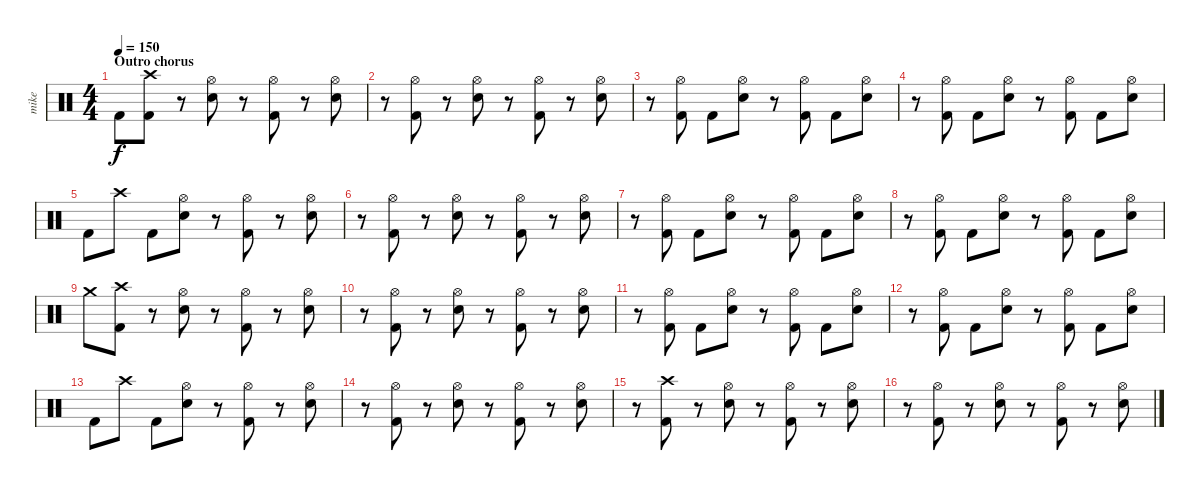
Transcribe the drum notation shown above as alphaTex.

\track ("mike" "mike") {instrument percussion}
\staff {score}
\articulation defaults
\ts (4 4)
\section ("" "Outro chorus")
\tempo 150
\clef neutral
\ks c "Kick (hit) 2".8{dy f}
("Crash high (hit)" "Kick (hit) 2").8 r.8 ("Hi-Hat (open)" "Electric Snare (hit)").8 r.8 ("Hi-Hat (open)" "Kick (hit) 2").8 r.8 ("Hi-Hat (open)" "Electric Snare (hit)").8 |
r.8 ("Hi-Hat (open)" "Kick (hit) 2").8 r.8 ("Hi-Hat (open)" "Electric Snare (hit)").8 r.8 ("Hi-Hat (open)" "Kick (hit) 2").8 r.8 ("Hi-Hat (open)" "Electric Snare (hit)").8 |
r.8 ("Hi-Hat (open)" "Kick (hit) 2").8 "Kick (hit) 2".8 ("Hi-Hat (open)" "Electric Snare (hit)").8 r.8 ("Hi-Hat (open)" "Kick (hit) 2").8 "Kick (hit) 2".8 ("Hi-Hat (open)" "Electric Snare (hit)").8 |
r.8 ("Hi-Hat (open)" "Kick (hit) 2").8 "Kick (hit) 2".8 ("Hi-Hat (open)" "Electric Snare (hit)").8 r.8 ("Hi-Hat (open)" "Kick (hit) 2").8 "Kick (hit) 2".8 ("Hi-Hat (open)" "Electric Snare (hit)").8 |
"Kick (hit) 2".8 "Crash high (hit)".8 "Kick (hit) 2".8 ("Hi-Hat (open)" "Electric Snare (hit)").8 r.8 ("Hi-Hat (open)" "Kick (hit) 2").8 r.8 ("Hi-Hat (open)" "Electric Snare (hit)").8 |
r.8 ("Hi-Hat (open)" "Kick (hit) 2").8 r.8 ("Hi-Hat (open)" "Electric Snare (hit)").8 r.8 ("Hi-Hat (open)" "Kick (hit) 2").8 r.8 ("Hi-Hat (open)" "Electric Snare (hit)").8 |
r.8 ("Hi-Hat (open)" "Kick (hit) 2").8 "Kick (hit) 2".8 ("Hi-Hat (open)" "Electric Snare (hit)").8 r.8 ("Hi-Hat (open)" "Kick (hit) 2").8 "Kick (hit) 2".8 ("Hi-Hat (open)" "Electric Snare (hit)").8 |
r.8 ("Hi-Hat (open)" "Kick (hit) 2").8 "Kick (hit) 2".8 ("Hi-Hat (open)" "Electric Snare (hit)").8 r.8 ("Hi-Hat (open)" "Kick (hit) 2").8 "Kick (hit) 2".8 ("Hi-Hat (open)" "Electric Snare (hit)").8 |
"Crash medium (hit)".8 ("Crash high (hit)" "Kick (hit) 2").8 r.8 ("Hi-Hat (open)" "Electric Snare (hit)").8 r.8 ("Hi-Hat (open)" "Kick (hit) 2").8 r.8 ("Hi-Hat (open)" "Electric Snare (hit)").8 |
r.8 ("Hi-Hat (open)" "Kick (hit) 2").8 r.8 ("Hi-Hat (open)" "Electric Snare (hit)").8 r.8 ("Hi-Hat (open)" "Kick (hit) 2").8 r.8 ("Hi-Hat (open)" "Electric Snare (hit)").8 |
r.8 ("Hi-Hat (open)" "Kick (hit) 2").8 "Kick (hit) 2".8 ("Hi-Hat (open)" "Electric Snare (hit)").8 r.8 ("Hi-Hat (open)" "Kick (hit) 2").8 "Kick (hit) 2".8 ("Hi-Hat (open)" "Electric Snare (hit)").8 |
r.8 ("Hi-Hat (open)" "Kick (hit) 2").8 "Kick (hit) 2".8 ("Hi-Hat (open)" "Electric Snare (hit)").8 r.8 ("Hi-Hat (open)" "Kick (hit) 2").8 "Kick (hit) 2".8 ("Hi-Hat (open)" "Electric Snare (hit)").8 |
"Kick (hit) 2".8 "Crash high (hit)".8 "Kick (hit) 2".8 ("Hi-Hat (open)" "Electric Snare (hit)").8 r.8 ("Hi-Hat (open)" "Kick (hit) 2").8 r.8 ("Hi-Hat (open)" "Electric Snare (hit)").8 |
r.8 ("Hi-Hat (open)" "Kick (hit) 2").8 r.8 ("Hi-Hat (open)" "Electric Snare (hit)").8 r.8 ("Hi-Hat (open)" "Kick (hit) 2").8 r.8 ("Hi-Hat (open)" "Electric Snare (hit)").8 |
r.8 ("Crash high (hit)" "Kick (hit) 2").8 r.8 ("Hi-Hat (open)" "Electric Snare (hit)").8 r.8 ("Hi-Hat (open)" "Kick (hit) 2").8 r.8 ("Hi-Hat (open)" "Electric Snare (hit)").8 |
r.8 ("Hi-Hat (open)" "Kick (hit) 2").8 r.8 ("Hi-Hat (open)" "Electric Snare (hit)").8 r.8 ("Hi-Hat (open)" "Kick (hit) 2").8 r.8 ("Hi-Hat (open)" "Electric Snare (hit)").8
